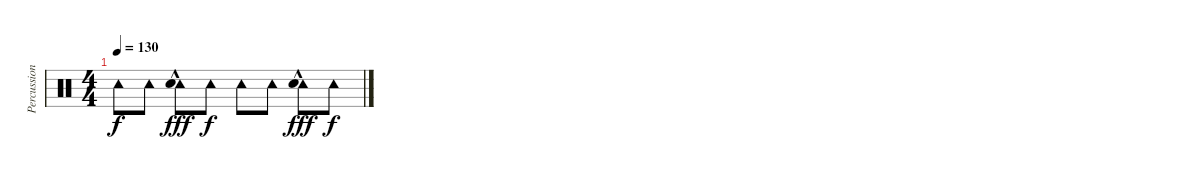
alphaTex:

\track ("Percussion" "Percussion") {instrument percussion}
\staff {score}
\articulation defaults
\ts (4 4)
\tempo 130
\clef neutral
\ks c "Tambourine (hit)".8{dy f} "Tambourine (hit)".8
("Tambourine (hit)"{hac} "Snare (hit) 2").8{dy fff} "Tambourine (hit)".8{dy f} "Tambourine (hit)".8 "Tambourine (hit)".8 ("Tambourine (hit)"{hac} "Snare (hit) 2").8{dy fff} "Tambourine (hit)".8{dy f}
